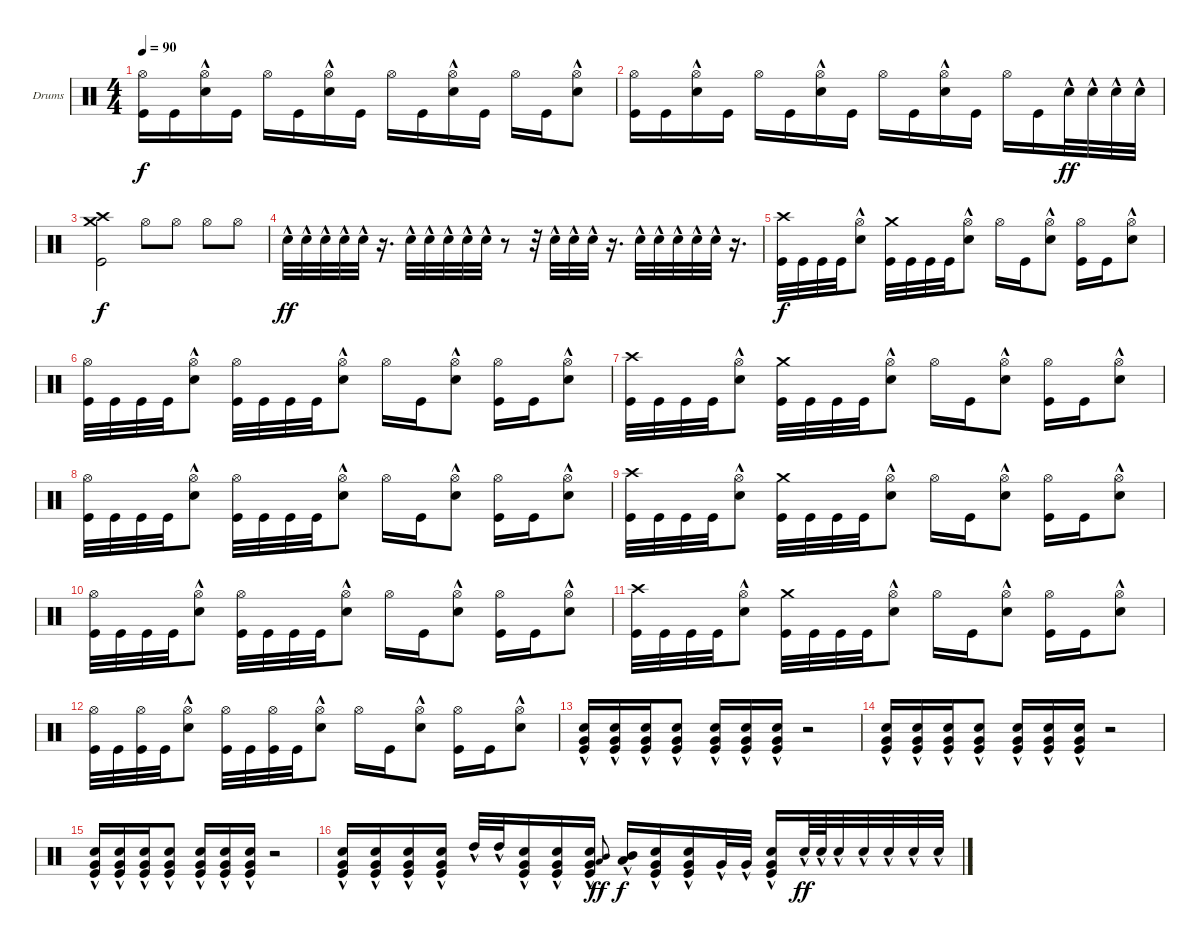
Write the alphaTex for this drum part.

\bracketExtendMode groupsimilarinstruments
\firstSystemTrackNameOrientation horizontal
\otherSystemsTrackNameOrientation horizontal
\track ("Drumkit (Christoph)" "Drums") {instrument percussion}
\staff {score}
\articulation defaults
\ts (4 4)
\tempo 90
\clef neutral
\ks c
("Hi-Hat (open)" "Kick (hit)").16{dy f} "Kick (hit)".16 ("Hi-Hat (open)" "Snare (hit) 2"{hac}).16 "Kick (hit)".16 "Hi-Hat (open)".16 "Kick (hit)".16 ("Hi-Hat (open)" "Snare (hit) 2"{hac}).16 "Kick (hit)".16 "Hi-Hat (open)".16 "Kick (hit)".16 ("Hi-Hat (open)" "Snare (hit) 2"{hac}).16 "Kick (hit)".16 "Hi-Hat (open)".16 "Kick (hit)".16 ("Hi-Hat (open)" "Snare (hit) 2"{hac}).8 |
("Hi-Hat (open)" "Kick (hit)").16 "Kick (hit)".16 ("Hi-Hat (open)" "Snare (hit) 2"{hac}).16 "Kick (hit)".16 "Hi-Hat (open)".16 "Kick (hit)".16 ("Hi-Hat (open)" "Snare (hit) 2"{hac}).16 "Kick (hit)".16 "Hi-Hat (open)".16 "Kick (hit)".16 ("Hi-Hat (open)" "Snare (hit) 2"{hac}).16 "Kick (hit)".16 "Hi-Hat (open)".16 "Kick (hit)".16 "Snare (hit) 2"{hac}.32{dy ff} "Snare (hit) 2"{hac}.32 "Snare (hit) 2"{hac}.32 "Snare (hit) 2"{hac}.32 |
("Crash medium (hit)" "Kick (hit)" "Crash high (hit)").2{dy f} "Hi-Hat (open)".8 "Hi-Hat (open)".8 "Hi-Hat (open)".8 "Hi-Hat (open)".8 |
"Snare (hit) 2"{hac}.32{dy ff} "Snare (hit) 2"{hac}.32 "Snare (hit) 2"{hac}.32 "Snare (hit) 2"{hac}.32 "Snare (hit) 2"{hac}.32 r.16{d} "Snare (hit) 2"{hac}.32 "Snare (hit) 2"{hac}.32 "Snare (hit) 2"{hac}.32 "Snare (hit) 2"{hac}.32 "Snare (hit) 2"{hac}.32 r.8 r.32 "Snare (hit) 2"{hac}.32 "Snare (hit) 2"{hac}.32 "Snare (hit) 2"{hac}.32 r.16{d} "Snare (hit) 2"{hac}.32 "Snare (hit) 2"{hac}.32 "Snare (hit) 2"{hac}.32 "Snare (hit) 2"{hac}.32 "Snare (hit) 2"{hac}.32 r.16{d} |
("Crash high (hit)" "Kick (hit)").32{dy f} "Kick (hit)".32 "Kick (hit)".32 "Kick (hit)".32 ("Hi-Hat (open)" "Snare (hit) 2"{hac}).8 ("Crash medium (hit)" "Kick (hit)").32 "Kick (hit)".32 "Kick (hit)".32 "Kick (hit)".32 ("Hi-Hat (open)" "Snare (hit) 2"{hac}).8 "Hi-Hat (open)".16 "Kick (hit)".16 ("Hi-Hat (open)" "Snare (hit) 2"{hac}).8 ("Hi-Hat (open)" "Kick (hit)").16 "Kick (hit)".16 ("Hi-Hat (open)" "Snare (hit) 2"{hac}).8 |
("Hi-Hat (open)" "Kick (hit)").32 "Kick (hit)".32 "Kick (hit)".32 "Kick (hit)".32 ("Hi-Hat (open)" "Snare (hit) 2"{hac}).8 ("Hi-Hat (open)" "Kick (hit)").32 "Kick (hit)".32 "Kick (hit)".32 "Kick (hit)".32 ("Hi-Hat (open)" "Snare (hit) 2"{hac}).8 "Hi-Hat (open)".16 "Kick (hit)".16 ("Hi-Hat (open)" "Snare (hit) 2"{hac}).8 ("Hi-Hat (open)" "Kick (hit)").16 "Kick (hit)".16 ("Hi-Hat (open)" "Snare (hit) 2"{hac}).8 |
("Crash high (hit)" "Kick (hit)").32 "Kick (hit)".32 "Kick (hit)".32 "Kick (hit)".32 ("Hi-Hat (open)" "Snare (hit) 2"{hac}).8 ("Crash medium (hit)" "Kick (hit)").32 "Kick (hit)".32 "Kick (hit)".32 "Kick (hit)".32 ("Hi-Hat (open)" "Snare (hit) 2"{hac}).8 "Hi-Hat (open)".16 "Kick (hit)".16 ("Hi-Hat (open)" "Snare (hit) 2"{hac}).8 ("Hi-Hat (open)" "Kick (hit)").16 "Kick (hit)".16 ("Hi-Hat (open)" "Snare (hit) 2"{hac}).8 |
("Hi-Hat (open)" "Kick (hit)").32 "Kick (hit)".32 "Kick (hit)".32 "Kick (hit)".32 ("Hi-Hat (open)" "Snare (hit) 2"{hac}).8 ("Hi-Hat (open)" "Kick (hit)").32 "Kick (hit)".32 "Kick (hit)".32 "Kick (hit)".32 ("Hi-Hat (open)" "Snare (hit) 2"{hac}).8 "Hi-Hat (open)".16 "Kick (hit)".16 ("Hi-Hat (open)" "Snare (hit) 2"{hac}).8 ("Hi-Hat (open)" "Kick (hit)").16 "Kick (hit)".16 ("Hi-Hat (open)" "Snare (hit) 2"{hac}).8 |
("Crash high (hit)" "Kick (hit)").32 "Kick (hit)".32 "Kick (hit)".32 "Kick (hit)".32 ("Hi-Hat (open)" "Snare (hit) 2"{hac}).8 ("Crash medium (hit)" "Kick (hit)").32 "Kick (hit)".32 "Kick (hit)".32 "Kick (hit)".32 ("Hi-Hat (open)" "Snare (hit) 2"{hac}).8 "Hi-Hat (open)".16 "Kick (hit)".16 ("Hi-Hat (open)" "Snare (hit) 2"{hac}).8 ("Hi-Hat (open)" "Kick (hit)").16 "Kick (hit)".16 ("Hi-Hat (open)" "Snare (hit) 2"{hac}).8 |
("Hi-Hat (open)" "Kick (hit)").32 "Kick (hit)".32 "Kick (hit)".32 "Kick (hit)".32 ("Hi-Hat (open)" "Snare (hit) 2"{hac}).8 ("Hi-Hat (open)" "Kick (hit)").32 "Kick (hit)".32 "Kick (hit)".32 "Kick (hit)".32 ("Hi-Hat (open)" "Snare (hit) 2"{hac}).8 "Hi-Hat (open)".16 "Kick (hit)".16 ("Hi-Hat (open)" "Snare (hit) 2"{hac}).8 ("Hi-Hat (open)" "Kick (hit)").16 "Kick (hit)".16 ("Hi-Hat (open)" "Snare (hit) 2"{hac}).8 |
("Crash high (hit)" "Kick (hit)").32 "Kick (hit)".32 "Kick (hit)".32 "Kick (hit)".32 ("Hi-Hat (open)" "Snare (hit) 2"{hac}).8 ("Crash medium (hit)" "Kick (hit)").32 "Kick (hit)".32 "Kick (hit)".32 "Kick (hit)".32 ("Hi-Hat (open)" "Snare (hit) 2"{hac}).8 "Hi-Hat (open)".16 "Kick (hit)".16 ("Hi-Hat (open)" "Snare (hit) 2"{hac}).8 ("Hi-Hat (open)" "Kick (hit)").16 "Kick (hit)".16 ("Hi-Hat (open)" "Snare (hit) 2"{hac}).8 |
("Hi-Hat (open)" "Kick (hit)").32 "Kick (hit)".32 ("Hi-Hat (open)" "Kick (hit)").32 "Kick (hit)".32 ("Hi-Hat (open)" "Snare (hit) 2"{hac}).8 ("Hi-Hat (open)" "Kick (hit)").32 "Kick (hit)".32 ("Hi-Hat (open)" "Kick (hit)").32 "Kick (hit)".32 ("Hi-Hat (open)" "Snare (hit) 2"{hac}).8 "Hi-Hat (open)".16 "Kick (hit)".16 ("Hi-Hat (open)" "Snare (hit) 2"{hac}).8 ("Hi-Hat (open)" "Kick (hit)").16 "Kick (hit)".16 ("Hi-Hat (open)" "Snare (hit) 2"{hac}).8 |
("Kick (hit)" "Snare (hit) 2"{hac} "Very Low Tom (hit)"{hac}).16 ("Kick (hit)" "Snare (hit) 2"{hac} "Very Low Tom (hit)"{hac}).16 ("Kick (hit)" "Snare (hit) 2"{hac} "Very Low Tom (hit)"{hac}).16 ("Kick (hit)" "Snare (hit) 2"{hac} "Very Low Tom (hit)"{hac}).8 ("Kick (hit)" "Snare (hit) 2"{hac} "Very Low Tom (hit)"{hac}).16 ("Kick (hit)" "Snare (hit) 2"{hac} "Very Low Tom (hit)"{hac}).16 ("Kick (hit)" "Snare (hit) 2"{hac} "Very Low Tom (hit)"{hac}).16 r.2 |
("Kick (hit)" "Snare (hit) 2"{hac} "Very Low Tom (hit)"{hac}).16 ("Kick (hit)" "Snare (hit) 2"{hac} "Very Low Tom (hit)"{hac}).16 ("Kick (hit)" "Snare (hit) 2"{hac} "Very Low Tom (hit)"{hac}).16 ("Kick (hit)" "Snare (hit) 2"{hac} "Very Low Tom (hit)"{hac}).8 ("Kick (hit)" "Snare (hit) 2"{hac} "Very Low Tom (hit)"{hac}).16 ("Kick (hit)" "Snare (hit) 2"{hac} "Very Low Tom (hit)"{hac}).16 ("Kick (hit)" "Snare (hit) 2"{hac} "Very Low Tom (hit)"{hac}).16 r.2 |
("Kick (hit)" "Snare (hit) 2"{hac} "Very Low Tom (hit)"{hac}).16 ("Kick (hit)" "Snare (hit) 2"{hac} "Very Low Tom (hit)"{hac}).16 ("Kick (hit)" "Snare (hit) 2"{hac} "Very Low Tom (hit)"{hac}).16 ("Kick (hit)" "Snare (hit) 2"{hac} "Very Low Tom (hit)"{hac}).8 ("Kick (hit)" "Snare (hit) 2"{hac} "Very Low Tom (hit)"{hac}).16 ("Kick (hit)" "Snare (hit) 2"{hac} "Very Low Tom (hit)"{hac}).16 ("Kick (hit)" "Snare (hit) 2"{hac} "Very Low Tom (hit)"{hac}).16 r.2 |
("Kick (hit)" "Snare (hit) 2"{hac} "Very Low Tom (hit)"{hac}).16 ("Kick (hit)" "Snare (hit) 2"{hac} "Very Low Tom (hit)"{hac}).16 ("Kick (hit)" "Snare (hit) 2"{hac} "Very Low Tom (hit)"{hac}).16 ("Kick (hit)" "Snare (hit) 2"{hac} "Very Low Tom (hit)"{hac}).16 "High Tom (hit)"{hac}.32 "High Tom (hit)"{hac}.32 ("Kick (hit)" "Snare (hit) 2"{hac} "Very Low Tom (hit)"{hac}).16 ("Kick (hit)" "Snare (hit) 2"{hac} "Very Low Tom (hit)"{hac}).16 ("Kick (hit)" "Snare (hit) 2"{hac} "Very Low Tom (hit)"{hac}).16 ("Mid Tom (hit)" "Low Tom (hit)").8{gr onbeat dy ff} ("Mid Tom (hit)"{hac} "Low Tom (hit)"{hac}).16{dy f} ("Kick (hit)" "Snare (hit) 2"{hac} "Very Low Tom (hit)"{hac}).16 ("Kick (hit)" "Snare (hit) 2"{hac} "Very Low Tom (hit)"{hac}).16 "Very Low Tom (hit)"{hac}.32 "Very Low Tom (hit)"{hac}.32 ("Kick (hit)" "Snare (hit) 2"{hac} "Very Low Tom (hit)"{hac}).16 "Snare (hit) 2"{hac}.64{dy ff} "Snare (hit) 2"{hac}.64 "Snare (hit) 2"{hac}.32 "Snare (hit) 2"{hac}.32 "Snare (hit) 2"{hac}.32 "Snare (hit) 2"{hac}.32 "Snare (hit) 2"{hac}.32
